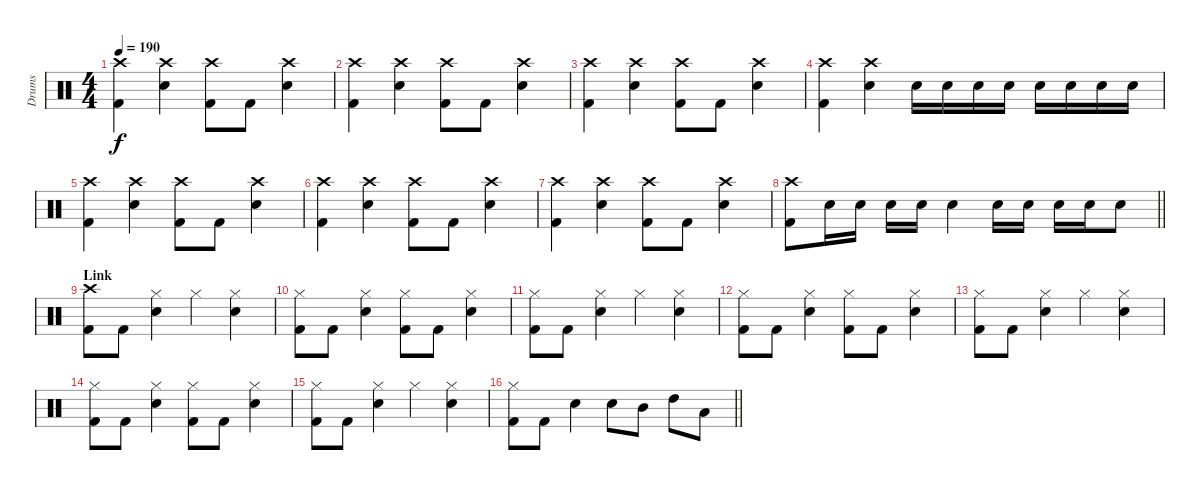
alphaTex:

\track ("Drums" "Drums") {instrument percussion}
\staff {score}
\articulation defaults
\ts (4 4)
\tempo 190
\clef neutral
\ks c
("Crash high (hit)" "Kick (hit) 2").4{dy f} ("Crash high (hit)" "Electric Snare (hit)").4 ("Crash high (hit)" "Kick (hit) 2").8 "Kick (hit) 2".8 ("Crash high (hit)" "Electric Snare (hit)").4 |
("Crash high (hit)" "Kick (hit) 2").4 ("Crash high (hit)" "Electric Snare (hit)").4 ("Crash high (hit)" "Kick (hit) 2").8 "Kick (hit) 2".8 ("Crash high (hit)" "Electric Snare (hit)").4 |
("Crash high (hit)" "Kick (hit) 2").4 ("Crash high (hit)" "Electric Snare (hit)").4 ("Crash high (hit)" "Kick (hit) 2").8 "Kick (hit) 2".8 ("Crash high (hit)" "Electric Snare (hit)").4 |
("Crash high (hit)" "Kick (hit) 2").4 ("Crash high (hit)" "Electric Snare (hit)").4 "Electric Snare (hit)".16 "Electric Snare (hit)".16 "Electric Snare (hit)".16 "Electric Snare (hit)".16 "Electric Snare (hit)".16 "Electric Snare (hit)".16 "Electric Snare (hit)".16 "Electric Snare (hit)".16 |
("Crash high (hit)" "Kick (hit) 2").4 ("Crash high (hit)" "Electric Snare (hit)").4 ("Crash high (hit)" "Kick (hit) 2").8 "Kick (hit) 2".8 ("Crash high (hit)" "Electric Snare (hit)").4 |
("Crash high (hit)" "Kick (hit) 2").4 ("Crash high (hit)" "Electric Snare (hit)").4 ("Crash high (hit)" "Kick (hit) 2").8 "Kick (hit) 2".8 ("Crash high (hit)" "Electric Snare (hit)").4 |
("Crash high (hit)" "Kick (hit) 2").4 ("Crash high (hit)" "Electric Snare (hit)").4 ("Crash high (hit)" "Kick (hit) 2").8 "Kick (hit) 2".8 ("Crash high (hit)" "Electric Snare (hit)").4 |
\barLineRight lightlight
("Crash high (hit)" "Kick (hit) 2").8 "Electric Snare (hit)".16 "Electric Snare (hit)".16 "Electric Snare (hit)".16 "Electric Snare (hit)".16 "Electric Snare (hit)".4 "Electric Snare (hit)".16 "Electric Snare (hit)".16 "Electric Snare (hit)".16 "Electric Snare (hit)".16 "Electric Snare (hit)".8 |
\section ("" "Link")
("Crash high (hit)" "Kick (hit) 2").8 "Kick (hit) 2".8 ("Hi-Hat (closed)" "Electric Snare (hit)").4 "Hi-Hat (closed)".4 ("Hi-Hat (closed)" "Electric Snare (hit)").4 |
("Hi-Hat (closed)" "Kick (hit) 2").8 "Kick (hit) 2".8 ("Hi-Hat (closed)" "Electric Snare (hit)").4 ("Hi-Hat (closed)" "Kick (hit) 2").8 "Kick (hit) 2".8 ("Hi-Hat (closed)" "Electric Snare (hit)").4 |
("Hi-Hat (closed)" "Kick (hit) 2").8 "Kick (hit) 2".8 ("Hi-Hat (closed)" "Electric Snare (hit)").4 "Hi-Hat (closed)".4 ("Hi-Hat (closed)" "Electric Snare (hit)").4 |
("Hi-Hat (closed)" "Kick (hit) 2").8 "Kick (hit) 2".8 ("Hi-Hat (closed)" "Electric Snare (hit)").4 ("Hi-Hat (closed)" "Kick (hit) 2").8 "Kick (hit) 2".8 ("Hi-Hat (closed)" "Electric Snare (hit)").4 |
("Hi-Hat (closed)" "Kick (hit) 2").8 "Kick (hit) 2".8 ("Hi-Hat (closed)" "Electric Snare (hit)").4 "Hi-Hat (closed)".4 ("Hi-Hat (closed)" "Electric Snare (hit)").4 |
("Hi-Hat (closed)" "Kick (hit) 2").8 "Kick (hit) 2".8 ("Hi-Hat (closed)" "Electric Snare (hit)").4 ("Hi-Hat (closed)" "Kick (hit) 2").8 "Kick (hit) 2".8 ("Hi-Hat (closed)" "Electric Snare (hit)").4 |
("Hi-Hat (closed)" "Kick (hit) 2").8 "Kick (hit) 2".8 ("Hi-Hat (closed)" "Electric Snare (hit)").4 "Hi-Hat (closed)".4 ("Hi-Hat (closed)" "Electric Snare (hit)").4 |
\barLineRight lightlight
("Hi-Hat (closed)" "Kick (hit) 2").8 "Kick (hit) 2".8 "Electric Snare (hit)".4 "Electric Snare (hit)".8 "Mid Tom (hit)".8 "High Tom (hit)".8 "Low Floor Tom (hit)".8
